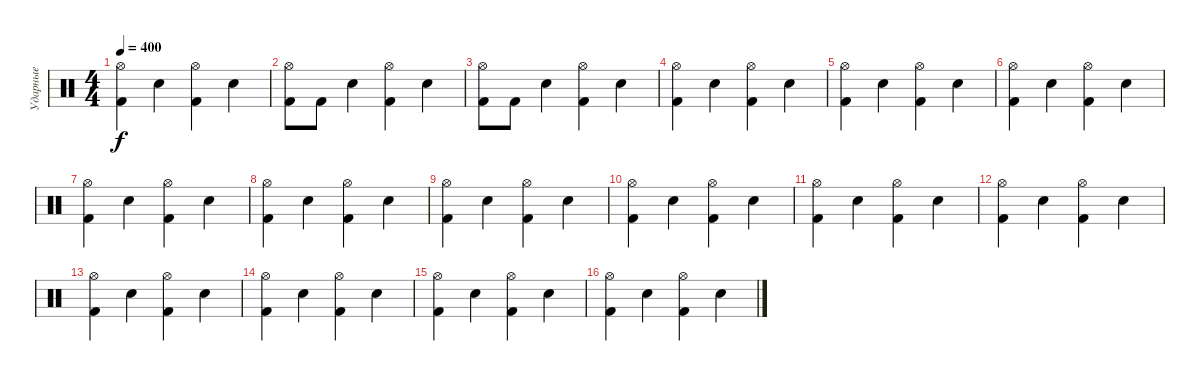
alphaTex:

\track ("Ударные" "Ударные") {instrument percussion}
\staff {score}
\articulation defaults
\ts (4 4)
\tempo 400
\clef neutral
\ks c
("Kick (hit) 2" "Hi-Hat (open)").4{dy f} "Electric Snare (hit)".4 ("Kick (hit) 2" "Hi-Hat (open)").4 "Electric Snare (hit)".4 |
("Kick (hit) 2" "Hi-Hat (open)").8 "Kick (hit) 2".8 "Electric Snare (hit)".4 ("Kick (hit) 2" "Hi-Hat (open)").4 "Electric Snare (hit)".4 |
("Kick (hit) 2" "Hi-Hat (open)").8 "Kick (hit) 2".8 "Electric Snare (hit)".4 ("Kick (hit) 2" "Hi-Hat (open)").4 "Electric Snare (hit)".4 |
("Kick (hit) 2" "Hi-Hat (open)").4 "Electric Snare (hit)".4 ("Kick (hit) 2" "Hi-Hat (open)").4 "Electric Snare (hit)".4 |
("Kick (hit) 2" "Hi-Hat (open)").4 "Electric Snare (hit)".4 ("Kick (hit) 2" "Hi-Hat (open)").4 "Electric Snare (hit)".4 |
("Kick (hit) 2" "Hi-Hat (open)").4 "Electric Snare (hit)".4 ("Kick (hit) 2" "Hi-Hat (open)").4 "Electric Snare (hit)".4 |
("Kick (hit) 2" "Hi-Hat (open)").4 "Electric Snare (hit)".4 ("Kick (hit) 2" "Hi-Hat (open)").4 "Electric Snare (hit)".4 |
("Kick (hit) 2" "Hi-Hat (open)").4 "Electric Snare (hit)".4 ("Kick (hit) 2" "Hi-Hat (open)").4 "Electric Snare (hit)".4 |
("Kick (hit) 2" "Hi-Hat (open)").4 "Electric Snare (hit)".4 ("Kick (hit) 2" "Hi-Hat (open)").4 "Electric Snare (hit)".4 |
("Kick (hit) 2" "Hi-Hat (open)").4 "Electric Snare (hit)".4 ("Kick (hit) 2" "Hi-Hat (open)").4 "Electric Snare (hit)".4 |
("Kick (hit) 2" "Hi-Hat (open)").4 "Electric Snare (hit)".4 ("Kick (hit) 2" "Hi-Hat (open)").4 "Electric Snare (hit)".4 |
("Kick (hit) 2" "Hi-Hat (open)").4 "Electric Snare (hit)".4 ("Kick (hit) 2" "Hi-Hat (open)").4 "Electric Snare (hit)".4 |
("Kick (hit) 2" "Hi-Hat (open)").4 "Electric Snare (hit)".4 ("Kick (hit) 2" "Hi-Hat (open)").4 "Electric Snare (hit)".4 |
("Kick (hit) 2" "Hi-Hat (open)").4 "Electric Snare (hit)".4 ("Kick (hit) 2" "Hi-Hat (open)").4 "Electric Snare (hit)".4 |
("Kick (hit) 2" "Hi-Hat (open)").4 "Electric Snare (hit)".4 ("Kick (hit) 2" "Hi-Hat (open)").4 "Electric Snare (hit)".4 |
("Kick (hit) 2" "Hi-Hat (open)").4 "Electric Snare (hit)".4 ("Kick (hit) 2" "Hi-Hat (open)").4 "Electric Snare (hit)".4
